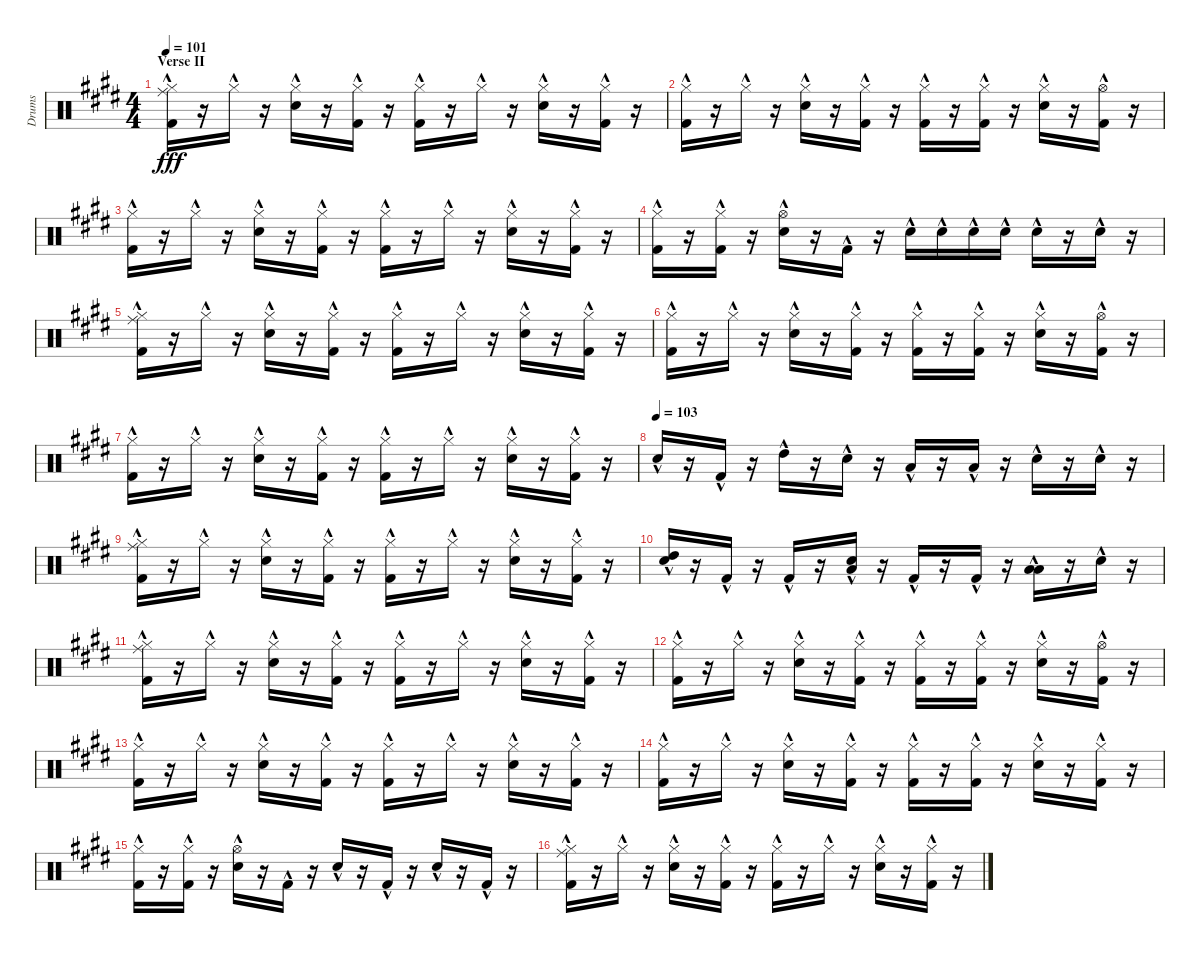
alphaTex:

\track ("Drums" "Drums") {instrument percussion}
\staff {score}
\articulation defaults
\ts (4 4)
\section ("" "Verse II")
\tempo 101
\clef neutral
\ks e
("Kick (hit) 2"{hac} "Hi-Hat (closed)"{hac} "Ride (middle)"{hac}).16{dy fff} r.16 "Hi-Hat (closed)"{hac}.16 r.16 ("Snare (hit) 2"{hac} "Hi-Hat (closed)"{hac}).16 r.16 ("Kick (hit) 2"{hac} "Hi-Hat (closed)"{hac}).16 r.16 ("Kick (hit) 2"{hac} "Hi-Hat (closed)"{hac}).16 r.16 "Hi-Hat (closed)"{hac}.16 r.16 ("Snare (hit) 2"{hac} "Hi-Hat (closed)"{hac}).16 r.16 ("Kick (hit) 2"{hac} "Hi-Hat (closed)"{hac}).16 r.16 |
("Kick (hit) 2"{hac} "Hi-Hat (closed)"{hac}).16 r.16 "Hi-Hat (closed)"{hac}.16 r.16 ("Snare (hit) 2"{hac} "Hi-Hat (closed)"{hac}).16 r.16 ("Kick (hit) 2"{hac} "Hi-Hat (closed)"{hac}).16 r.16 ("Kick (hit) 2"{hac} "Hi-Hat (closed)"{hac}).16 r.16 ("Kick (hit) 2"{hac} "Hi-Hat (closed)"{hac}).16 r.16 ("Snare (hit) 2"{hac} "Hi-Hat (closed)"{hac}).16 r.16 ("Kick (hit) 2"{hac} "Hi-Hat (open)"{hac}).16 r.16 |
("Kick (hit) 2"{hac} "Hi-Hat (closed)"{hac}).16 r.16 "Hi-Hat (closed)"{hac}.16 r.16 ("Snare (hit) 2"{hac} "Hi-Hat (closed)"{hac}).16 r.16 ("Kick (hit) 2"{hac} "Hi-Hat (closed)"{hac}).16 r.16 ("Kick (hit) 2"{hac} "Hi-Hat (closed)"{hac}).16 r.16 "Hi-Hat (closed)"{hac}.16 r.16 ("Snare (hit) 2"{hac} "Hi-Hat (closed)"{hac}).16 r.16 ("Kick (hit) 2"{hac} "Hi-Hat (closed)"{hac}).16 r.16 |
("Kick (hit) 2"{hac} "Hi-Hat (closed)"{hac}).16 r.16 ("Kick (hit) 2"{hac} "Hi-Hat (closed)"{hac}).16 r.16 ("Snare (hit) 2"{hac} "Hi-Hat (open)"{hac}).16 r.16 "Kick (hit) 2"{hac}.16 r.16 "Snare (hit) 2"{hac}.16 "Snare (hit) 2"{hac}.16 "Snare (hit) 2"{hac}.16 "Snare (hit) 2"{hac}.16 "Snare (hit) 2"{hac}.16 r.16 "Snare (hit) 2"{hac}.16 r.16 |
("Kick (hit) 2"{hac} "Hi-Hat (closed)"{hac} "Ride (middle)"{hac}).16 r.16 "Hi-Hat (closed)"{hac}.16 r.16 ("Snare (hit) 2"{hac} "Hi-Hat (closed)"{hac}).16 r.16 ("Kick (hit) 2"{hac} "Hi-Hat (closed)"{hac}).16 r.16 ("Kick (hit) 2"{hac} "Hi-Hat (closed)"{hac}).16 r.16 "Hi-Hat (closed)"{hac}.16 r.16 ("Snare (hit) 2"{hac} "Hi-Hat (closed)"{hac}).16 r.16 ("Kick (hit) 2"{hac} "Hi-Hat (closed)"{hac}).16 r.16 |
("Kick (hit) 2"{hac} "Hi-Hat (closed)"{hac}).16 r.16 "Hi-Hat (closed)"{hac}.16 r.16 ("Snare (hit) 2"{hac} "Hi-Hat (closed)"{hac}).16 r.16 ("Kick (hit) 2"{hac} "Hi-Hat (closed)"{hac}).16 r.16 ("Kick (hit) 2"{hac} "Hi-Hat (closed)"{hac}).16 r.16 ("Kick (hit) 2"{hac} "Hi-Hat (closed)"{hac}).16 r.16 ("Snare (hit) 2"{hac} "Hi-Hat (closed)"{hac}).16 r.16 ("Kick (hit) 2"{hac} "Hi-Hat (open)"{hac}).16 r.16 |
("Kick (hit) 2"{hac} "Hi-Hat (closed)"{hac}).16 r.16 "Hi-Hat (closed)"{hac}.16 r.16 ("Snare (hit) 2"{hac} "Hi-Hat (closed)"{hac}).16 r.16 ("Kick (hit) 2"{hac} "Hi-Hat (closed)"{hac}).16 r.16 ("Kick (hit) 2"{hac} "Hi-Hat (closed)"{hac}).16 r.16 "Hi-Hat (closed)"{hac}.16 r.16 ("Snare (hit) 2"{hac} "Hi-Hat (closed)"{hac}).16 r.16 ("Kick (hit) 2"{hac} "Hi-Hat (closed)"{hac}).16 r.16 |
\tempo (103)
"Snare (hit) 2"{hac}.16 r.16 "Kick (hit) 2"{hac}.16 r.16 "High Tom (hit)"{hac}.16 r.16 "Snare (hit) 2"{hac}.16 r.16 "Low Tom (hit)"{hac}.16 r.16 "Low Tom (hit)"{hac}.16 r.16 "Snare (hit) 2"{hac}.16 r.16 "Snare (hit) 2"{hac}.16 r.16 |
("Kick (hit) 2"{hac} "Hi-Hat (closed)"{hac} "Ride (middle)"{hac}).16 r.16 "Hi-Hat (closed)"{hac}.16 r.16 ("Snare (hit) 2"{hac} "Hi-Hat (closed)"{hac}).16 r.16 ("Kick (hit) 2"{hac} "Hi-Hat (closed)"{hac}).16 r.16 ("Kick (hit) 2"{hac} "Hi-Hat (closed)"{hac}).16 r.16 "Hi-Hat (closed)"{hac}.16 r.16 ("Snare (hit) 2"{hac} "Hi-Hat (closed)"{hac}).16 r.16 ("Kick (hit) 2"{hac} "Hi-Hat (closed)"{hac}).16 r.16 |
("Snare (hit) 2"{hac} "High Tom (hit)"{hac}).16 r.16 "Kick (hit) 2"{hac}.16 r.16 "Kick (hit) 2"{hac}.16 r.16 ("Snare (hit) 2"{hac} "Low Tom (hit)"{hac}).16 r.16 "Kick (hit) 2"{hac}.16 r.16 "Kick (hit) 2"{hac}.16 r.16 ("Low Floor Tom (hit)"{hac} "Low Tom (hit)"{hac}).16 r.16 "Snare (hit) 2"{hac}.16 r.16 |
("Kick (hit) 2"{hac} "Hi-Hat (closed)"{hac} "Ride (middle)"{hac}).16 r.16 "Hi-Hat (closed)"{hac}.16 r.16 ("Snare (hit) 2"{hac} "Hi-Hat (closed)"{hac}).16 r.16 ("Kick (hit) 2"{hac} "Hi-Hat (closed)"{hac}).16 r.16 ("Kick (hit) 2"{hac} "Hi-Hat (closed)"{hac}).16 r.16 "Hi-Hat (closed)"{hac}.16 r.16 ("Snare (hit) 2"{hac} "Hi-Hat (closed)"{hac}).16 r.16 ("Kick (hit) 2"{hac} "Hi-Hat (closed)"{hac}).16 r.16 |
("Kick (hit) 2"{hac} "Hi-Hat (closed)"{hac}).16 r.16 "Hi-Hat (closed)"{hac}.16 r.16 ("Snare (hit) 2"{hac} "Hi-Hat (closed)"{hac}).16 r.16 ("Kick (hit) 2"{hac} "Hi-Hat (closed)"{hac}).16 r.16 ("Kick (hit) 2"{hac} "Hi-Hat (closed)"{hac}).16 r.16 ("Kick (hit) 2"{hac} "Hi-Hat (closed)"{hac}).16 r.16 ("Snare (hit) 2"{hac} "Hi-Hat (closed)"{hac}).16 r.16 ("Kick (hit) 2"{hac} "Hi-Hat (open)"{hac}).16 r.16 |
("Kick (hit) 2"{hac} "Hi-Hat (closed)"{hac}).16 r.16 "Hi-Hat (closed)"{hac}.16 r.16 ("Snare (hit) 2"{hac} "Hi-Hat (closed)"{hac}).16 r.16 ("Kick (hit) 2"{hac} "Hi-Hat (closed)"{hac}).16 r.16 ("Kick (hit) 2"{hac} "Hi-Hat (closed)"{hac}).16 r.16 "Hi-Hat (closed)"{hac}.16 r.16 ("Snare (hit) 2"{hac} "Hi-Hat (closed)"{hac}).16 r.16 ("Kick (hit) 2"{hac} "Hi-Hat (closed)"{hac}).16 r.16 |
("Kick (hit) 2"{hac} "Hi-Hat (closed)"{hac}).16 r.16 "Hi-Hat (closed)"{hac}.16 r.16 ("Snare (hit) 2"{hac} "Hi-Hat (closed)"{hac}).16 r.16 ("Kick (hit) 2"{hac} "Hi-Hat (closed)"{hac}).16 r.16 ("Kick (hit) 2"{hac} "Hi-Hat (closed)"{hac}).16 r.16 ("Kick (hit) 2"{hac} "Hi-Hat (closed)"{hac}).16 r.16 ("Snare (hit) 2"{hac} "Hi-Hat (closed)"{hac}).16 r.16 ("Kick (hit) 2"{hac} "Hi-Hat (closed)"{hac}).16 r.16 |
("Kick (hit) 2"{hac} "Hi-Hat (closed)"{hac}).16 r.16 ("Kick (hit) 2"{hac} "Hi-Hat (closed)"{hac}).16 r.16 ("Snare (hit) 2"{hac} "Hi-Hat (open)"{hac}).16 r.16 "Kick (hit) 2"{hac}.16 r.16 "Snare (hit) 2"{hac}.16 r.16 "Kick (hit) 2"{hac}.16 r.16 "Snare (hit) 2"{hac}.16 r.16 "Kick (hit) 2"{hac}.16 r.16 |
("Kick (hit) 2"{hac} "Hi-Hat (closed)"{hac} "Ride (middle)"{hac}).16 r.16 "Hi-Hat (closed)"{hac}.16 r.16 ("Snare (hit) 2"{hac} "Hi-Hat (closed)"{hac}).16 r.16 ("Kick (hit) 2"{hac} "Hi-Hat (closed)"{hac}).16 r.16 ("Kick (hit) 2"{hac} "Hi-Hat (closed)"{hac}).16 r.16 "Hi-Hat (closed)"{hac}.16 r.16 ("Snare (hit) 2"{hac} "Hi-Hat (closed)"{hac}).16 r.16 ("Kick (hit) 2"{hac} "Hi-Hat (closed)"{hac}).16 r.16
